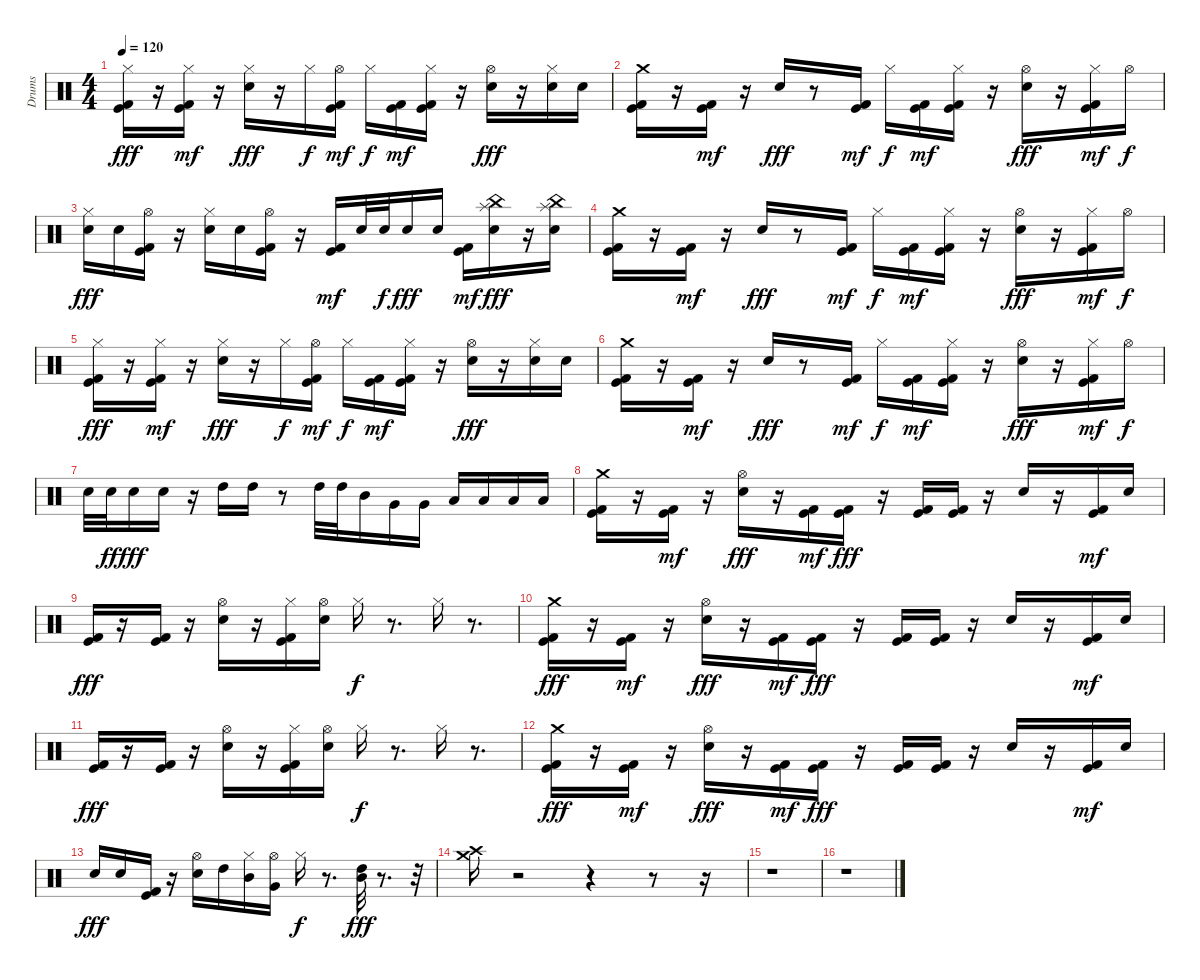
\track ("Drums" "Drums") {instrument percussion}
\staff {score}
\articulation defaults
\ts (4 4)
\tempo 120
\clef neutral
\ks c
("Kick (hit)" "Kick (hit) 2" "Hi-Hat (closed)").16{dy fff} r.16 ("Kick (hit)" "Kick (hit) 2" "Hi-Hat (closed)").16{dy mf} r.16 ("Electric Snare (hit)" "Hi-Hat (closed)").16{dy fff} r.16 "Hi-Hat (closed)".16{dy f} ("Kick (hit)" "Kick (hit) 2" "Hi-Hat (open)").16{dy mf} "Hi-Hat (closed)".16{dy f} ("Kick (hit)" "Kick (hit) 2").16{dy mf} ("Kick (hit)" "Kick (hit) 2" "Hi-Hat (closed)").16 r.16 ("Electric Snare (hit)" "Hi-Hat (open)").16{dy fff} r.16 ("Electric Snare (hit)" "Hi-Hat (closed)").16 "Electric Snare (hit)".16 |
("Kick (hit)" "Kick (hit) 2" "Crash medium (hit)").16 r.16 ("Kick (hit)" "Kick (hit) 2").16{dy mf} r.16 "Electric Snare (hit)".16{dy fff} r.8 ("Kick (hit)" "Kick (hit) 2").16{dy mf} "Hi-Hat (closed)".16{dy f} ("Kick (hit)" "Kick (hit) 2").16{dy mf} ("Kick (hit)" "Kick (hit) 2" "Hi-Hat (closed)").16 r.16 ("Electric Snare (hit)" "Hi-Hat (open)").16{dy fff} r.16 ("Kick (hit)" "Kick (hit) 2" "Hi-Hat (closed)").16{dy mf} "Hi-Hat (open)".16{dy f} |
("Electric Snare (hit)" "Hi-Hat (closed)").16{dy fff} "Electric Snare (hit)".16 ("Kick (hit)" "Kick (hit) 2" "Hi-Hat (open)").16 r.16 ("Electric Snare (hit)" "Hi-Hat (closed)").16 "Electric Snare (hit)".16 ("Kick (hit)" "Kick (hit) 2" "Hi-Hat (open)").16 r.16 ("Kick (hit)" "Kick (hit) 2").16{dy mf} "Electric Snare (hit)".32 "Electric Snare (hit)".32{dy f} "Electric Snare (hit)".16{dy fff} "Electric Snare (hit)".16 ("Kick (hit)" "Kick (hit) 2").16{dy mf} ("Electric Snare (hit)" "China (hit)" "Splash (hit)").16{dy fff} r.16 ("Electric Snare (hit)" "China (hit)" "Splash (hit)").16 |
("Kick (hit)" "Kick (hit) 2" "Crash medium (hit)").16 r.16 ("Kick (hit)" "Kick (hit) 2").16{dy mf} r.16 "Electric Snare (hit)".16{dy fff} r.8 ("Kick (hit)" "Kick (hit) 2").16{dy mf} "Hi-Hat (closed)".16{dy f} ("Kick (hit)" "Kick (hit) 2").16{dy mf} ("Kick (hit)" "Kick (hit) 2" "Hi-Hat (closed)").16 r.16 ("Electric Snare (hit)" "Hi-Hat (open)").16{dy fff} r.16 ("Kick (hit)" "Kick (hit) 2" "Hi-Hat (closed)").16{dy mf} "Hi-Hat (open)".16{dy f} |
("Kick (hit)" "Kick (hit) 2" "Hi-Hat (closed)").16{dy fff} r.16 ("Kick (hit)" "Kick (hit) 2" "Hi-Hat (closed)").16{dy mf} r.16 ("Electric Snare (hit)" "Hi-Hat (closed)").16{dy fff} r.16 "Hi-Hat (closed)".16{dy f} ("Kick (hit)" "Kick (hit) 2" "Hi-Hat (open)").16{dy mf} "Hi-Hat (closed)".16{dy f} ("Kick (hit)" "Kick (hit) 2").16{dy mf} ("Kick (hit)" "Kick (hit) 2" "Hi-Hat (closed)").16 r.16 ("Electric Snare (hit)" "Hi-Hat (open)").16{dy fff} r.16 ("Electric Snare (hit)" "Hi-Hat (closed)").16 "Electric Snare (hit)".16 |
("Kick (hit)" "Kick (hit) 2" "Crash medium (hit)").16 r.16 ("Kick (hit)" "Kick (hit) 2").16{dy mf} r.16 "Electric Snare (hit)".16{dy fff} r.8 ("Kick (hit)" "Kick (hit) 2").16{dy mf} "Hi-Hat (closed)".16{dy f} ("Kick (hit)" "Kick (hit) 2").16{dy mf} ("Kick (hit)" "Kick (hit) 2" "Hi-Hat (closed)").16 r.16 ("Electric Snare (hit)" "Hi-Hat (open)").16{dy fff} r.16 ("Kick (hit)" "Kick (hit) 2" "Hi-Hat (closed)").16{dy mf} "Hi-Hat (open)".16{dy f} |
"Electric Snare (hit)".32 "Electric Snare (hit)".32{dy ff} "Electric Snare (hit)".16{dy fff} "Electric Snare (hit)".16 r.16 "High Tom (hit)".16 "High Tom (hit)".16 r.8 "High Tom (hit)".32 "High Tom (hit)".32 "Mid Tom (hit)".16 "Very Low Tom (hit)".16 "Very Low Tom (hit)".16 "Low Floor Tom (hit)".16 "Low Floor Tom (hit)".16 "Low Floor Tom (hit)".16 "Low Floor Tom (hit)".16 |
("Kick (hit)" "Kick (hit) 2" "Crash medium (hit)").16 r.16 ("Kick (hit)" "Kick (hit) 2").16{dy mf} r.16 ("Electric Snare (hit)" "Hi-Hat (open)").16{dy fff} r.16 ("Kick (hit)" "Kick (hit) 2").16{dy mf} ("Kick (hit)" "Kick (hit) 2").16{dy fff} r.16 ("Kick (hit)" "Kick (hit) 2").16 ("Kick (hit)" "Kick (hit) 2").16 r.16 "Electric Snare (hit)".16 r.16 ("Kick (hit)" "Kick (hit) 2").16{dy mf} "Electric Snare (hit)".16 |
("Kick (hit)" "Kick (hit) 2").16{dy fff} r.16 ("Kick (hit)" "Kick (hit) 2").16 r.16 ("Electric Snare (hit)" "Hi-Hat (open)").16 r.16 ("Kick (hit)" "Kick (hit) 2" "Hi-Hat (closed)").16 ("Electric Snare (hit)" "Hi-Hat (open)").16 "Hi-Hat (closed)".16{dy f} r.8{d} "Hi-Hat (closed)".16 r.8{d} |
("Kick (hit)" "Kick (hit) 2" "Crash medium (hit)").16{dy fff} r.16 ("Kick (hit)" "Kick (hit) 2").16{dy mf} r.16 ("Electric Snare (hit)" "Hi-Hat (open)").16{dy fff} r.16 ("Kick (hit)" "Kick (hit) 2").16{dy mf} ("Kick (hit)" "Kick (hit) 2").16{dy fff} r.16 ("Kick (hit)" "Kick (hit) 2").16 ("Kick (hit)" "Kick (hit) 2").16 r.16 "Electric Snare (hit)".16 r.16 ("Kick (hit)" "Kick (hit) 2").16{dy mf} "Electric Snare (hit)".16 |
("Kick (hit)" "Kick (hit) 2").16{dy fff} r.16 ("Kick (hit)" "Kick (hit) 2").16 r.16 ("Electric Snare (hit)" "Hi-Hat (open)").16 r.16 ("Kick (hit)" "Kick (hit) 2" "Hi-Hat (closed)").16 ("Electric Snare (hit)" "Hi-Hat (open)").16 "Hi-Hat (closed)".16{dy f} r.8{d} "Hi-Hat (closed)".16 r.8{d} |
("Kick (hit)" "Kick (hit) 2" "Crash medium (hit)").16{dy fff} r.16 ("Kick (hit)" "Kick (hit) 2").16{dy mf} r.16 ("Electric Snare (hit)" "Hi-Hat (open)").16{dy fff} r.16 ("Kick (hit)" "Kick (hit) 2").16{dy mf} ("Kick (hit)" "Kick (hit) 2").16{dy fff} r.16 ("Kick (hit)" "Kick (hit) 2").16 ("Kick (hit)" "Kick (hit) 2").16 r.16 "Electric Snare (hit)".16 r.16 ("Kick (hit)" "Kick (hit) 2").16{dy mf} "Electric Snare (hit)".16 |
"Electric Snare (hit)".16{dy fff} "Electric Snare (hit)".16 ("Kick (hit)" "Kick (hit) 2").16 r.16 ("Electric Snare (hit)" "Hi-Hat (open)").16 "High Tom (hit)".16 ("Hi-Hat (closed)" "Mid Tom (hit)").16 ("Very Low Tom (hit)" "Hi-Hat (open)").16 "Hi-Hat (closed)".16{dy f} r.8{d} ("High Tom (hit)" "Mid Tom (hit)").32{dy fff} r.8{d} r.32 |
("Crash high (hit)" "Crash medium (hit)").16 r.2 r.4 r.8 r.16 |
r.1 |
r.1
